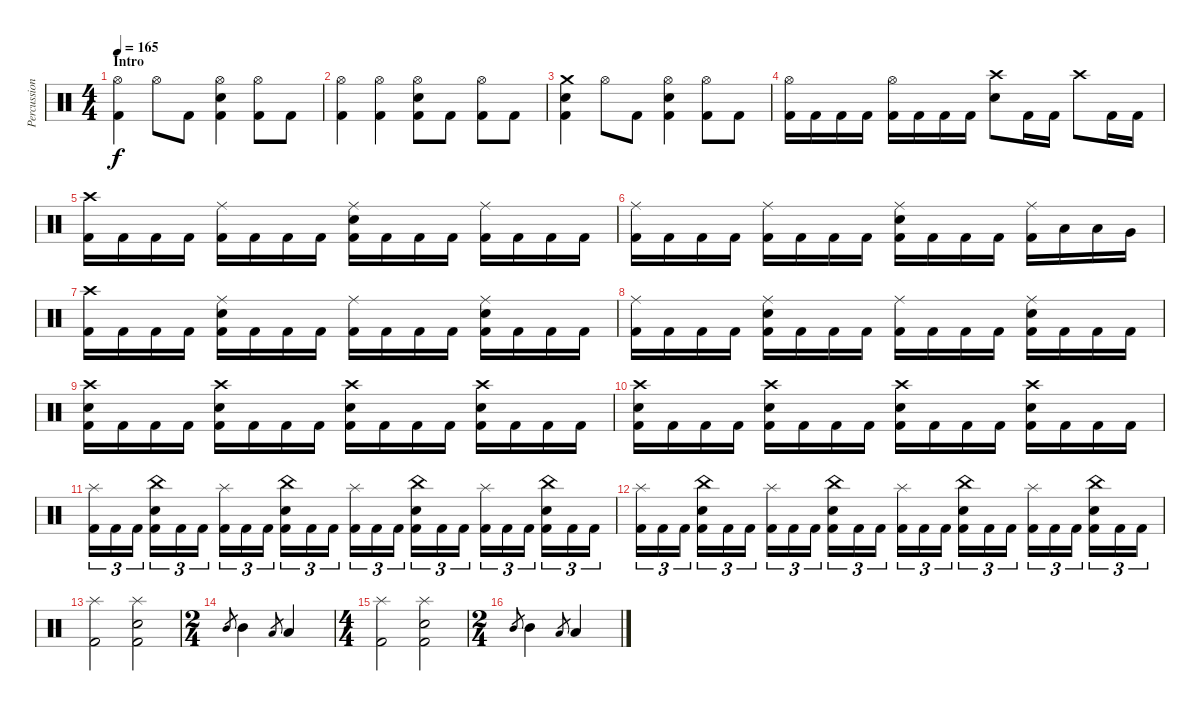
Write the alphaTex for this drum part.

\track ("Percussion" "Percussion") {instrument percussion}
\staff {score}
\articulation defaults
\ts (4 4)
\section ("" "Intro")
\tempo 165
\clef neutral
\ks c
("Hi-Hat (open)" "Kick (hit) 2").4{dy f} "Hi-Hat (open)".8 "Kick (hit) 2".8 ("Hi-Hat (open)" "Snare (hit) 2" "Kick (hit) 2").4 ("Hi-Hat (open)" "Kick (hit) 2").8 "Kick (hit) 2".8 |
("Hi-Hat (open)" "Kick (hit) 2").4 ("Hi-Hat (open)" "Kick (hit) 2").4 ("Hi-Hat (open)" "Snare (hit) 2" "Kick (hit) 2").8 "Kick (hit) 2".8 ("Hi-Hat (open)" "Kick (hit) 2").8 "Kick (hit) 2".8 |
("Crash medium (hit)" "Snare (hit) 2" "Kick (hit) 2").4 "Hi-Hat (open)".8 "Kick (hit) 2".8 ("Hi-Hat (open)" "Snare (hit) 2" "Kick (hit) 2").4 ("Hi-Hat (open)" "Kick (hit) 2").8 "Kick (hit) 2".8 |
("Hi-Hat (open)" "Kick (hit) 2").16 "Kick (hit) 2".16 "Kick (hit) 2".16 "Kick (hit) 2".16 ("Hi-Hat (open)" "Kick (hit) 2").16 "Kick (hit) 2".16 "Kick (hit) 2".16 "Kick (hit) 2".16 ("Crash high (hit)" "Snare (hit) 2").8 "Kick (hit) 2".16 "Kick (hit) 2".16 "Crash high (hit)".8 "Kick (hit) 2".16 "Kick (hit) 2".16 |
("Crash high (hit)" "Kick (hit) 2").16 "Kick (hit) 2".16 "Kick (hit) 2".16 "Kick (hit) 2".16 ("Ride (middle)" "Kick (hit) 2").16 "Kick (hit) 2".16 "Kick (hit) 2".16 "Kick (hit) 2".16 ("Ride (middle)" "Snare (hit) 2" "Kick (hit) 2").16 "Kick (hit) 2".16 "Kick (hit) 2".16 "Kick (hit) 2".16 ("Ride (middle)" "Kick (hit) 2").16 "Kick (hit) 2".16 "Kick (hit) 2".16 "Kick (hit) 2".16 |
("Ride (middle)" "Kick (hit) 2").16 "Kick (hit) 2".16 "Kick (hit) 2".16 "Kick (hit) 2".16 ("Ride (middle)" "Kick (hit) 2").16 "Kick (hit) 2".16 "Kick (hit) 2".16 "Kick (hit) 2".16 ("Ride (middle)" "Snare (hit) 2" "Kick (hit) 2").16 "Kick (hit) 2".16 "Kick (hit) 2".16 "Kick (hit) 2".16 ("Ride (middle)" "Kick (hit) 2").16 "Low Tom (hit)".16 "Low Tom (hit)".16 "Very Low Tom (hit)".16 |
("Crash high (hit)" "Kick (hit) 2").16 "Kick (hit) 2".16 "Kick (hit) 2".16 "Kick (hit) 2".16 ("Ride (middle)" "Snare (hit) 2" "Kick (hit) 2").16 "Kick (hit) 2".16 "Kick (hit) 2".16 "Kick (hit) 2".16 ("Ride (middle)" "Kick (hit) 2").16 "Kick (hit) 2".16 "Kick (hit) 2".16 "Kick (hit) 2".16 ("Ride (middle)" "Snare (hit) 2" "Kick (hit) 2").16 "Kick (hit) 2".16 "Kick (hit) 2".16 "Kick (hit) 2".16 |
("Ride (middle)" "Kick (hit) 2").16 "Kick (hit) 2".16 "Kick (hit) 2".16 "Kick (hit) 2".16 ("Ride (middle)" "Snare (hit) 2" "Kick (hit) 2").16 "Kick (hit) 2".16 "Kick (hit) 2".16 "Kick (hit) 2".16 ("Ride (middle)" "Kick (hit) 2").16 "Kick (hit) 2".16 "Kick (hit) 2".16 "Kick (hit) 2".16 ("Ride (middle)" "Snare (hit) 2" "Kick (hit) 2").16 "Kick (hit) 2".16 "Kick (hit) 2".16 "Kick (hit) 2".16 |
("Crash high (hit)" "Snare (hit) 2" "Kick (hit) 2").16 "Kick (hit) 2".16 "Kick (hit) 2".16 "Kick (hit) 2".16 ("Crash high (hit)" "Snare (hit) 2" "Kick (hit) 2").16 "Kick (hit) 2".16 "Kick (hit) 2".16 "Kick (hit) 2".16 ("Crash high (hit)" "Snare (hit) 2" "Kick (hit) 2").16 "Kick (hit) 2".16 "Kick (hit) 2".16 "Kick (hit) 2".16 ("Crash high (hit)" "Snare (hit) 2" "Kick (hit) 2").16 "Kick (hit) 2".16 "Kick (hit) 2".16 "Kick (hit) 2".16 |
("Crash high (hit)" "Snare (hit) 2" "Kick (hit) 2").16 "Kick (hit) 2".16 "Kick (hit) 2".16 "Kick (hit) 2".16 ("Crash high (hit)" "Snare (hit) 2" "Kick (hit) 2").16 "Kick (hit) 2".16 "Kick (hit) 2".16 "Kick (hit) 2".16 ("Crash high (hit)" "Snare (hit) 2" "Kick (hit) 2").16 "Kick (hit) 2".16 "Kick (hit) 2".16 "Kick (hit) 2".16 ("Crash high (hit)" "Snare (hit) 2" "Kick (hit) 2").16 "Kick (hit) 2".16 "Kick (hit) 2".16 "Kick (hit) 2".16 |
("Splash (hit)" "Kick (hit) 2").16{tu (3 2)} "Kick (hit) 2".16{tu (3 2)} "Kick (hit) 2".16{tu (3 2)} ("China (hit)" "Snare (hit) 2" "Kick (hit) 2").16{tu (3 2)} "Kick (hit) 2".16{tu (3 2)} "Kick (hit) 2".16{tu (3 2)} ("Splash (hit)" "Kick (hit) 2").16{tu (3 2)} "Kick (hit) 2".16{tu (3 2)} "Kick (hit) 2".16{tu (3 2)} ("China (hit)" "Snare (hit) 2" "Kick (hit) 2").16{tu (3 2)} "Kick (hit) 2".16{tu (3 2)} "Kick (hit) 2".16{tu (3 2)} ("Splash (hit)" "Kick (hit) 2").16{tu (3 2)} "Kick (hit) 2".16{tu (3 2)} "Kick (hit) 2".16{tu (3 2)} ("China (hit)" "Snare (hit) 2" "Kick (hit) 2").16{tu (3 2)} "Kick (hit) 2".16{tu (3 2)} "Kick (hit) 2".16{tu (3 2)} ("Splash (hit)" "Kick (hit) 2").16{tu (3 2)} "Kick (hit) 2".16{tu (3 2)} "Kick (hit) 2".16{tu (3 2)} ("China (hit)" "Snare (hit) 2" "Kick (hit) 2").16{tu (3 2)} "Kick (hit) 2".16{tu (3 2)} "Kick (hit) 2".16{tu (3 2)} |
("Splash (hit)" "Kick (hit) 2").16{tu (3 2)} "Kick (hit) 2".16{tu (3 2)} "Kick (hit) 2".16{tu (3 2)} ("China (hit)" "Snare (hit) 2" "Kick (hit) 2").16{tu (3 2)} "Kick (hit) 2".16{tu (3 2)} "Kick (hit) 2".16{tu (3 2)} ("Splash (hit)" "Kick (hit) 2").16{tu (3 2)} "Kick (hit) 2".16{tu (3 2)} "Kick (hit) 2".16{tu (3 2)} ("China (hit)" "Snare (hit) 2" "Kick (hit) 2").16{tu (3 2)} "Kick (hit) 2".16{tu (3 2)} "Kick (hit) 2".16{tu (3 2)} ("Splash (hit)" "Kick (hit) 2").16{tu (3 2)} "Kick (hit) 2".16{tu (3 2)} "Kick (hit) 2".16{tu (3 2)} ("China (hit)" "Snare (hit) 2" "Kick (hit) 2").16{tu (3 2)} "Kick (hit) 2".16{tu (3 2)} "Kick (hit) 2".16{tu (3 2)} ("Splash (hit)" "Kick (hit) 2").16{tu (3 2)} "Kick (hit) 2".16{tu (3 2)} "Kick (hit) 2".16{tu (3 2)} ("China (hit)" "Snare (hit) 2" "Kick (hit) 2").16{tu (3 2)} "Kick (hit) 2".16{tu (3 2)} "Kick (hit) 2".16{tu (3 2)} |
("Splash (hit)" "Kick (hit) 2").2 ("Splash (hit)" "Snare (hit) 2" "Kick (hit) 2").2 |
\ts (2 4)
"Mid Tom (hit)".8{gr} "Mid Tom (hit)".4 "Low Tom (hit)".8{gr} "Low Tom (hit)".4 |
\ts (4 4)
("Splash (hit)" "Kick (hit) 2").2 ("Splash (hit)" "Snare (hit) 2" "Kick (hit) 2").2 |
\ts (2 4)
"Mid Tom (hit)".8{gr} "Mid Tom (hit)".4 "Low Tom (hit)".8{gr} "Low Tom (hit)".4
